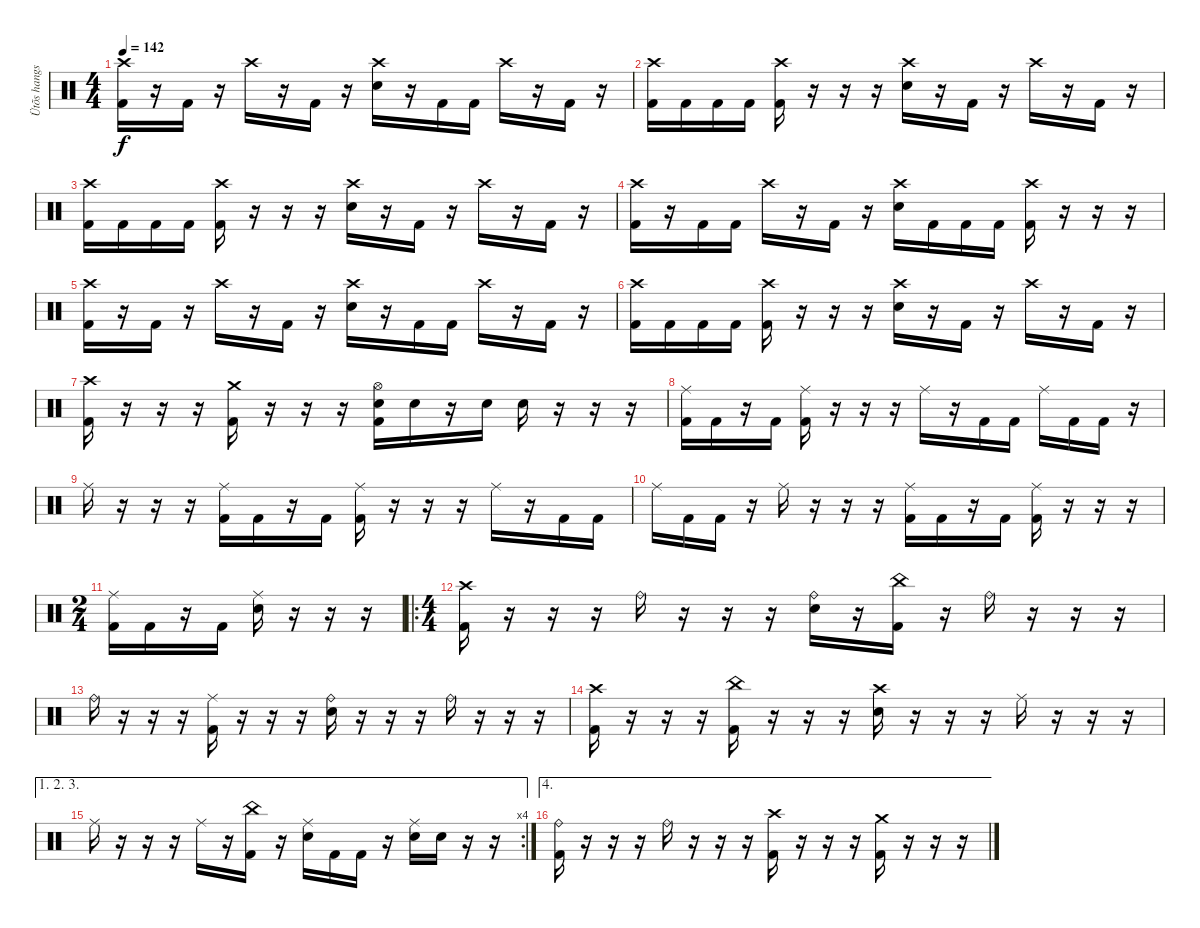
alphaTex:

\track ("Ütõs hangszer" "Ütõs hangs") {instrument percussion}
\staff {score}
\articulation defaults
\ts (4 4)
\tempo 142
\clef neutral
\ks c
("Crash high (hit)" "Kick (hit) 2").16{dy f} r.16 "Kick (hit) 2".16 r.16 "Crash high (hit)".16 r.16 "Kick (hit) 2".16 r.16 ("Crash high (hit)" "Electric Snare (hit)").16 r.16 "Kick (hit) 2".16 "Kick (hit) 2".16 "Crash high (hit)".16 r.16 "Kick (hit) 2".16 r.16 |
("Crash high (hit)" "Kick (hit) 2").16 "Kick (hit) 2".16 "Kick (hit) 2".16 "Kick (hit) 2".16 ("Crash high (hit)" "Kick (hit) 2").16 r.16 r.16 r.16 ("Crash high (hit)" "Electric Snare (hit)").16 r.16 "Kick (hit) 2".16 r.16 "Crash high (hit)".16 r.16 "Kick (hit) 2".16 r.16 |
("Crash high (hit)" "Kick (hit) 2").16 "Kick (hit) 2".16 "Kick (hit) 2".16 "Kick (hit) 2".16 ("Crash high (hit)" "Kick (hit) 2").16 r.16 r.16 r.16 ("Crash high (hit)" "Electric Snare (hit)").16 r.16 "Kick (hit) 2".16 r.16 "Crash high (hit)".16 r.16 "Kick (hit) 2".16 r.16 |
("Crash high (hit)" "Kick (hit) 2").16 r.16 "Kick (hit) 2".16 "Kick (hit) 2".16 "Crash high (hit)".16 r.16 "Kick (hit) 2".16 r.16 ("Crash high (hit)" "Electric Snare (hit)").16 "Kick (hit) 2".16 "Kick (hit) 2".16 "Kick (hit) 2".16 ("Crash high (hit)" "Kick (hit) 2").16 r.16 r.16 r.16 |
("Crash high (hit)" "Kick (hit) 2").16 r.16 "Kick (hit) 2".16 r.16 "Crash high (hit)".16 r.16 "Kick (hit) 2".16 r.16 ("Crash high (hit)" "Electric Snare (hit)").16 r.16 "Kick (hit) 2".16 "Kick (hit) 2".16 "Crash high (hit)".16 r.16 "Kick (hit) 2".16 r.16 |
("Crash high (hit)" "Kick (hit) 2").16 "Kick (hit) 2".16 "Kick (hit) 2".16 "Kick (hit) 2".16 ("Crash high (hit)" "Kick (hit) 2").16 r.16 r.16 r.16 ("Crash high (hit)" "Electric Snare (hit)").16 r.16 "Kick (hit) 2".16 r.16 "Crash high (hit)".16 r.16 "Kick (hit) 2".16 r.16 |
("Crash high (hit)" "Kick (hit) 2").16 r.16 r.16 r.16 ("Crash medium (hit)" "Kick (hit) 2").16 r.16 r.16 r.16 ("Hi-Hat (open)" "Electric Snare (hit)" "Kick (hit) 2").16 "Electric Snare (hit)".16 r.16 "Electric Snare (hit)".16 "Electric Snare (hit)".16 r.16 r.16 r.16 |
("Ride (middle)" "Kick (hit) 2").16 "Kick (hit) 2".16 r.16 "Kick (hit) 2".16 ("Ride (middle)" "Kick (hit) 2").16 r.16 r.16 r.16 "Ride (middle)".16 r.16 "Kick (hit) 2".16 "Kick (hit) 2".16 "Ride (middle)".16 "Kick (hit) 2".16 "Kick (hit) 2".16 r.16 |
"Ride (middle)".16 r.16 r.16 r.16 ("Ride (middle)" "Kick (hit) 2").16 "Kick (hit) 2".16 r.16 "Kick (hit) 2".16 ("Ride (middle)" "Kick (hit) 2").16 r.16 r.16 r.16 "Ride (middle)".16 r.16 "Kick (hit) 2".16 "Kick (hit) 2".16 |
"Ride (middle)".16 "Kick (hit) 2".16 "Kick (hit) 2".16 r.16 "Ride (middle)".16 r.16 r.16 r.16 ("Ride (middle)" "Kick (hit) 2").16 "Kick (hit) 2".16 r.16 "Kick (hit) 2".16 ("Ride (middle)" "Kick (hit) 2").16 r.16 r.16 r.16 |
\ts (2 4)
("Ride (middle)" "Kick (hit) 2").16 "Kick (hit) 2".16 r.16 "Kick (hit) 2".16 ("Ride (middle)" "Electric Snare (hit)").16 r.16 r.16 r.16 |
\ro
\ts (4 4)
("Crash high (hit)" "Kick (hit) 2").16 r.16 r.16 r.16 "Ride (bell)".16 r.16 r.16 r.16 ("Ride (bell)" "Electric Snare (hit)").16 r.16 ("China (hit)" "Kick (hit) 2").16 r.16 "Ride (bell)".16 r.16 r.16 r.16 |
"Ride (bell)".16 r.16 r.16 r.16 ("Ride (middle)" "Kick (hit) 2").16 r.16 r.16 r.16 ("Ride (bell)" "Electric Snare (hit)").16 r.16 r.16 r.16 "Ride (bell)".16 r.16 r.16 r.16 |
("Crash high (hit)" "Kick (hit) 2").16 r.16 r.16 r.16 ("China (hit)" "Kick (hit) 2").16 r.16 r.16 r.16 ("Crash high (hit)" "Electric Snare (hit)").16 r.16 r.16 r.16 "Ride (middle)".16 r.16 r.16 r.16 |
\ae (1 2 3)
\rc 4 "Ride (middle)".16
r.16 r.16 r.16 "Ride (middle)".16 r.16 ("China (hit)" "Kick (hit) 2").16 r.16 ("Ride (middle)" "Electric Snare (hit)").16 "Kick (hit) 2".16 "Kick (hit) 2".16 r.16 ("Ride (middle)" "Electric Snare (hit)").16 "Electric Snare (hit)".16 r.16 r.16 |
\ae 4
("Ride (bell)" "Kick (hit) 2").16 r.16 r.16 r.16 "Ride (bell)".16 r.16 r.16 r.16 ("Crash high (hit)" "Kick (hit) 2").16 r.16 r.16 r.16 ("Crash medium (hit)" "Kick (hit) 2").16 r.16 r.16 r.16
